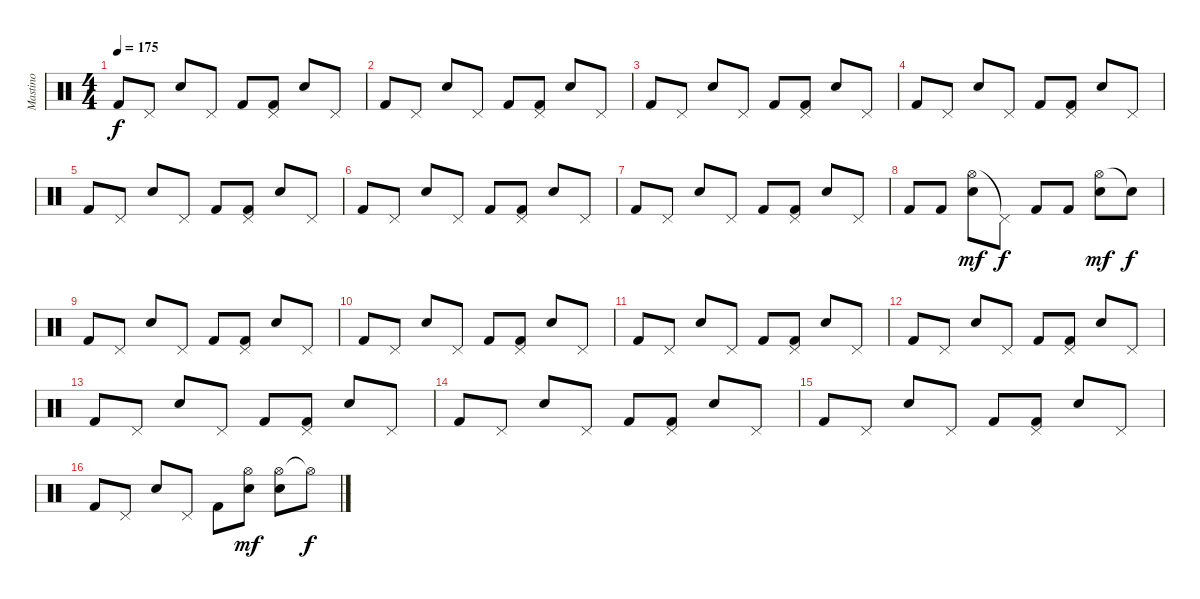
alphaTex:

\track ("Mastino" "Mastino") {instrument percussion}
\staff {score}
\articulation defaults
\ts (4 4)
\tempo 175
\clef neutral
\ks c "Kick (hit) 2".8{dy f} "Pedal Hi-Hat (hit)".8 "Electric Snare (hit)".8 "Pedal Hi-Hat (hit)".8 "Kick (hit) 2".8
("Pedal Hi-Hat (hit)" "Kick (hit) 2").8 "Electric Snare (hit)".8 "Pedal Hi-Hat (hit)".8 |
"Kick (hit) 2".8 "Pedal Hi-Hat (hit)".8 "Electric Snare (hit)".8 "Pedal Hi-Hat (hit)".8 "Kick (hit) 2".8 ("Pedal Hi-Hat (hit)" "Kick (hit) 2").8 "Electric Snare (hit)".8 "Pedal Hi-Hat (hit)".8 |
"Kick (hit) 2".8 "Pedal Hi-Hat (hit)".8 "Electric Snare (hit)".8 "Pedal Hi-Hat (hit)".8 "Kick (hit) 2".8 ("Pedal Hi-Hat (hit)" "Kick (hit) 2").8 "Electric Snare (hit)".8 "Pedal Hi-Hat (hit)".8 |
"Kick (hit) 2".8 "Pedal Hi-Hat (hit)".8 "Electric Snare (hit)".8 "Pedal Hi-Hat (hit)".8 "Kick (hit) 2".8 ("Pedal Hi-Hat (hit)" "Kick (hit) 2").8 "Electric Snare (hit)".8 "Pedal Hi-Hat (hit)".8 |
"Kick (hit) 2".8 "Pedal Hi-Hat (hit)".8 "Electric Snare (hit)".8 "Pedal Hi-Hat (hit)".8 "Kick (hit) 2".8 ("Pedal Hi-Hat (hit)" "Kick (hit) 2").8 "Electric Snare (hit)".8 "Pedal Hi-Hat (hit)".8 |
"Kick (hit) 2".8 "Pedal Hi-Hat (hit)".8 "Electric Snare (hit)".8 "Pedal Hi-Hat (hit)".8 "Kick (hit) 2".8 ("Pedal Hi-Hat (hit)" "Kick (hit) 2").8 "Electric Snare (hit)".8 "Pedal Hi-Hat (hit)".8 |
"Kick (hit) 2".8 "Pedal Hi-Hat (hit)".8 "Electric Snare (hit)".8 "Pedal Hi-Hat (hit)".8 "Kick (hit) 2".8 ("Pedal Hi-Hat (hit)" "Kick (hit) 2").8 "Electric Snare (hit)".8 "Pedal Hi-Hat (hit)".8 |
"Kick (hit) 2".8 "Kick (hit) 2".8 ("Hi-Hat (open)" "Electric Snare (hit)").8{dy mf} "Pedal Hi-Hat (hit)"{t}.8{dy f} "Kick (hit) 2".8 "Kick (hit) 2".8 ("Hi-Hat (open)" "Electric Snare (hit)").8{dy mf} "Snare (hit)"{t}.8{dy f} |
"Kick (hit) 2".8 "Pedal Hi-Hat (hit)".8 "Electric Snare (hit)".8 "Pedal Hi-Hat (hit)".8 "Kick (hit) 2".8 ("Pedal Hi-Hat (hit)" "Kick (hit) 2").8 "Electric Snare (hit)".8 "Pedal Hi-Hat (hit)".8 |
"Kick (hit) 2".8 "Pedal Hi-Hat (hit)".8 "Electric Snare (hit)".8 "Pedal Hi-Hat (hit)".8 "Kick (hit) 2".8 ("Pedal Hi-Hat (hit)" "Kick (hit) 2").8 "Electric Snare (hit)".8 "Pedal Hi-Hat (hit)".8 |
"Kick (hit) 2".8 "Pedal Hi-Hat (hit)".8 "Electric Snare (hit)".8 "Pedal Hi-Hat (hit)".8 "Kick (hit) 2".8 ("Pedal Hi-Hat (hit)" "Kick (hit) 2").8 "Electric Snare (hit)".8 "Pedal Hi-Hat (hit)".8 |
"Kick (hit) 2".8 "Pedal Hi-Hat (hit)".8 "Electric Snare (hit)".8 "Pedal Hi-Hat (hit)".8 "Kick (hit) 2".8 ("Pedal Hi-Hat (hit)" "Kick (hit) 2").8 "Electric Snare (hit)".8 "Pedal Hi-Hat (hit)".8 |
"Kick (hit) 2".8 "Pedal Hi-Hat (hit)".8 "Electric Snare (hit)".8 "Pedal Hi-Hat (hit)".8 "Kick (hit) 2".8 ("Pedal Hi-Hat (hit)" "Kick (hit) 2").8 "Electric Snare (hit)".8 "Pedal Hi-Hat (hit)".8 |
"Kick (hit) 2".8 "Pedal Hi-Hat (hit)".8 "Electric Snare (hit)".8 "Pedal Hi-Hat (hit)".8 "Kick (hit) 2".8 ("Pedal Hi-Hat (hit)" "Kick (hit) 2").8 "Electric Snare (hit)".8 "Pedal Hi-Hat (hit)".8 |
"Kick (hit) 2".8 "Pedal Hi-Hat (hit)".8 "Electric Snare (hit)".8 "Pedal Hi-Hat (hit)".8 "Kick (hit) 2".8 ("Pedal Hi-Hat (hit)" "Kick (hit) 2").8 "Electric Snare (hit)".8 "Pedal Hi-Hat (hit)".8 |
"Kick (hit) 2".8 "Pedal Hi-Hat (hit)".8 "Electric Snare (hit)".8 "Pedal Hi-Hat (hit)".8 "Kick (hit) 2".8 ("Hi-Hat (open)" "Electric Snare (hit)").8{dy mf} ("Hi-Hat (open)" "Electric Snare (hit)").8 "Hi-Hat (open)"{t}.8{dy f}
